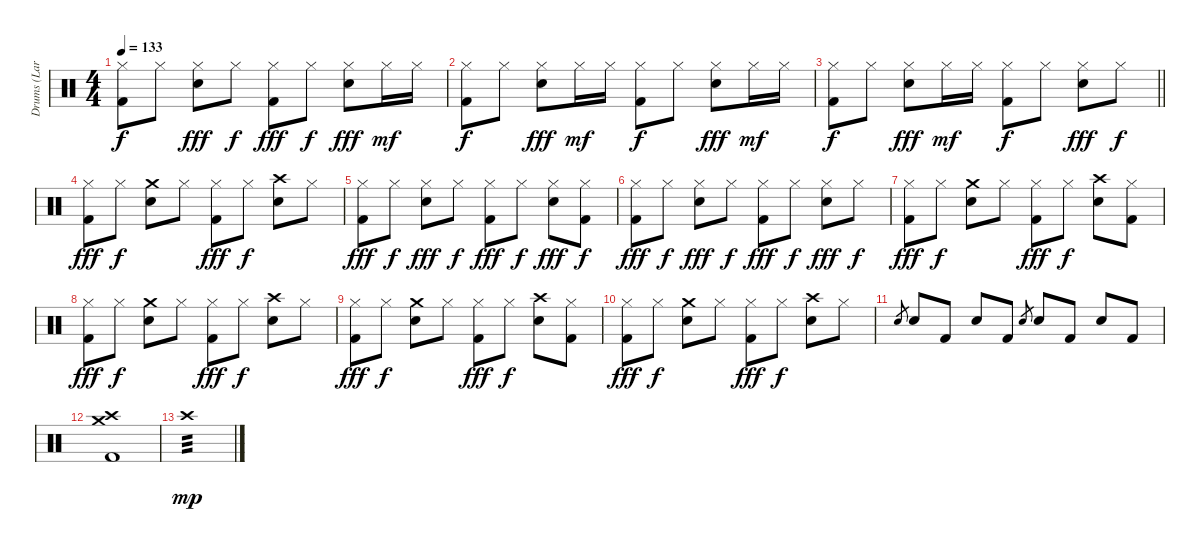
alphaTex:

\track ("Drums (Lars)" "Drums (Lar") {instrument percussion}
\staff {score}
\articulation defaults
\ts (4 4)
\tempo 133
\clef neutral
\ks c
("Hi-Hat (closed)" "Kick (hit) 2").8{dy f} "Hi-Hat (closed)".8 ("Hi-Hat (closed)" "Snare (hit) 2").8{dy fff} "Hi-Hat (closed)".8{dy f} ("Hi-Hat (closed)" "Kick (hit) 2").8{dy fff} "Hi-Hat (closed)".8{dy f} ("Hi-Hat (closed)" "Snare (hit) 2").8{dy fff} "Hi-Hat (closed)".16{dy mf} "Hi-Hat (closed)".16 |
("Hi-Hat (closed)" "Kick (hit) 2").8{dy f} "Hi-Hat (closed)".8 ("Hi-Hat (closed)" "Snare (hit) 2").8{dy fff} "Hi-Hat (closed)".16{dy mf} "Hi-Hat (closed)".16 ("Hi-Hat (closed)" "Kick (hit) 2").8{dy f} "Hi-Hat (closed)".8 ("Hi-Hat (closed)" "Snare (hit) 2").8{dy fff} "Hi-Hat (closed)".16{dy mf} "Hi-Hat (closed)".16 |
\barLineRight lightlight
("Hi-Hat (closed)" "Kick (hit) 2").8{dy f} "Hi-Hat (closed)".8 ("Hi-Hat (closed)" "Snare (hit) 2").8{dy fff} "Hi-Hat (closed)".16{dy mf} "Hi-Hat (closed)".16 ("Hi-Hat (closed)" "Kick (hit) 2").8{dy f} "Hi-Hat (closed)".8 ("Hi-Hat (closed)" "Snare (hit) 2").8{dy fff} "Hi-Hat (closed)".8{dy f} |
("Hi-Hat (closed)" "Kick (hit) 2").8{dy fff} "Hi-Hat (closed)".8{dy f} ("Crash medium (hit)" "Snare (hit) 2").8 "Hi-Hat (closed)".8 ("Hi-Hat (closed)" "Kick (hit) 2").8{dy fff} "Hi-Hat (closed)".8{dy f} ("Crash high (hit)" "Snare (hit) 2").8 "Hi-Hat (closed)".8 |
("Hi-Hat (closed)" "Kick (hit) 2").8{dy fff} "Hi-Hat (closed)".8{dy f} ("Hi-Hat (closed)" "Snare (hit) 2").8{dy fff} "Hi-Hat (closed)".8{dy f} ("Hi-Hat (closed)" "Kick (hit) 2").8{dy fff} "Hi-Hat (closed)".8{dy f} ("Hi-Hat (closed)" "Snare (hit) 2").8{dy fff} ("Hi-Hat (closed)" "Kick (hit) 2").8{dy f} |
("Hi-Hat (closed)" "Kick (hit) 2").8{dy fff} "Hi-Hat (closed)".8{dy f} ("Hi-Hat (closed)" "Snare (hit) 2").8{dy fff} "Hi-Hat (closed)".8{dy f} ("Hi-Hat (closed)" "Kick (hit) 2").8{dy fff} "Hi-Hat (closed)".8{dy f} ("Hi-Hat (closed)" "Snare (hit) 2").8{dy fff} "Hi-Hat (closed)".8{dy f} |
("Hi-Hat (closed)" "Kick (hit) 2").8{dy fff} "Hi-Hat (closed)".8{dy f} ("Crash medium (hit)" "Snare (hit) 2").8 "Hi-Hat (closed)".8 ("Hi-Hat (closed)" "Kick (hit) 2").8{dy fff} "Hi-Hat (closed)".8{dy f} ("Crash high (hit)" "Snare (hit) 2").8 ("Hi-Hat (closed)" "Kick (hit) 2").8 |
("Hi-Hat (closed)" "Kick (hit) 2").8{dy fff} "Hi-Hat (closed)".8{dy f} ("Crash medium (hit)" "Snare (hit) 2").8 "Hi-Hat (closed)".8 ("Hi-Hat (closed)" "Kick (hit) 2").8{dy fff} "Hi-Hat (closed)".8{dy f} ("Crash high (hit)" "Snare (hit) 2").8 "Hi-Hat (closed)".8 |
("Hi-Hat (closed)" "Kick (hit) 2").8{dy fff} "Hi-Hat (closed)".8{dy f} ("Crash medium (hit)" "Snare (hit) 2").8 "Hi-Hat (closed)".8 ("Hi-Hat (closed)" "Kick (hit) 2").8{dy fff} "Hi-Hat (closed)".8{dy f} ("Crash high (hit)" "Snare (hit) 2").8 ("Hi-Hat (closed)" "Kick (hit) 2").8 |
("Hi-Hat (closed)" "Kick (hit) 2").8{dy fff} "Hi-Hat (closed)".8{dy f} ("Crash medium (hit)" "Snare (hit) 2").8 "Hi-Hat (closed)".8 ("Hi-Hat (closed)" "Kick (hit) 2").8{dy fff} "Hi-Hat (closed)".8{dy f} ("Crash high (hit)" "Snare (hit) 2").8 "Hi-Hat (closed)".8 |
"Snare (hit) 2".8{gr} "Snare (hit) 2".8 "Kick (hit) 2".8 "Snare (hit) 2".8 "Kick (hit) 2".8 "Snare (hit) 2".8{gr} "Snare (hit) 2".8 "Kick (hit) 2".8 "Snare (hit) 2".8 "Kick (hit) 2".8 |
("Crash medium (hit)" "Crash high (hit)" "Kick (hit) 2").1 |
"Crash high (hit)".1{tp 3 dy mp}
